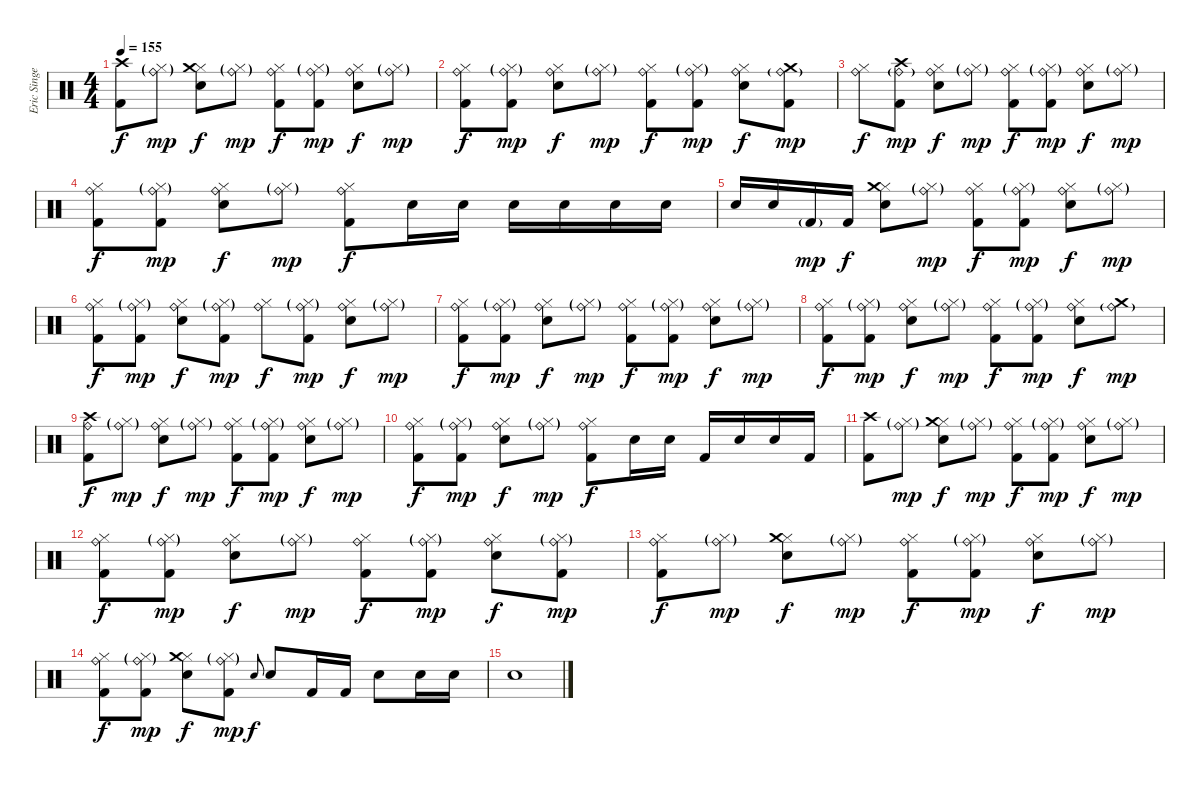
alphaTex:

\track ("Eric Singer" "Eric Singe") {instrument percussion}
\staff {score}
\articulation defaults
\ts (4 4)
\tempo 155
\clef neutral
\ks c
("Crash high (hit)" "Kick (hit) 2").8{dy f} ("Hi-Hat (closed)"{g} "Ride (bell)"{g}).8{dy mp} ("Hi-Hat (closed)" "Crash medium (hit)" "Snare (hit) 2").8{dy f} ("Hi-Hat (closed)"{g} "Ride (bell)"{g}).8{dy mp} ("Hi-Hat (closed)" "Ride (bell)" "Kick (hit) 2").8{dy f} ("Hi-Hat (closed)"{g} "Ride (bell)"{g} "Kick (hit) 2").8{dy mp} ("Hi-Hat (closed)" "Ride (bell)" "Snare (hit) 2").8{dy f} ("Hi-Hat (closed)"{g} "Ride (bell)"{g}).8{dy mp} |
("Hi-Hat (closed)" "Ride (bell)" "Kick (hit) 2").8{dy f} ("Hi-Hat (closed)"{g} "Ride (bell)"{g} "Kick (hit) 2").8{dy mp} ("Hi-Hat (closed)" "Ride (bell)" "Snare (hit) 2").8{dy f} ("Hi-Hat (closed)"{g} "Ride (bell)"{g}).8{dy mp} ("Hi-Hat (closed)" "Ride (bell)" "Kick (hit) 2").8{dy f} ("Hi-Hat (closed)"{g} "Ride (bell)"{g} "Kick (hit) 2").8{dy mp} ("Hi-Hat (closed)" "Ride (bell)" "Snare (hit) 2").8{dy f} ("Crash medium (hit)" "Ride (bell)"{g} "Kick (hit) 2").8{dy mp} |
("Hi-Hat (closed)" "Ride (bell)").8{dy f} ("Crash high (hit)" "Ride (bell)"{g} "Kick (hit) 2").8{dy mp} ("Hi-Hat (closed)" "Ride (bell)" "Snare (hit) 2").8{dy f} ("Hi-Hat (closed)"{g} "Ride (bell)"{g}).8{dy mp} ("Hi-Hat (closed)" "Ride (bell)" "Kick (hit) 2").8{dy f} ("Hi-Hat (closed)"{g} "Ride (bell)"{g} "Kick (hit) 2").8{dy mp} ("Hi-Hat (closed)" "Ride (bell)" "Snare (hit) 2").8{dy f} ("Hi-Hat (closed)"{g} "Ride (bell)"{g}).8{dy mp} |
("Hi-Hat (closed)" "Ride (bell)" "Kick (hit) 2").8{dy f} ("Hi-Hat (closed)"{g} "Ride (bell)"{g} "Kick (hit) 2").8{dy mp} ("Hi-Hat (closed)" "Ride (bell)" "Snare (hit) 2").8{dy f} ("Hi-Hat (closed)"{g} "Ride (bell)"{g}).8{dy mp} ("Hi-Hat (closed)" "Ride (bell)" "Kick (hit) 2").8{dy f} "Snare (hit) 2".16 "Snare (hit) 2".16 "Snare (hit) 2".16 "Snare (hit) 2".16 "Snare (hit) 2".16 "Snare (hit) 2".16 |
"Snare (hit) 2".16 "Snare (hit) 2".16 "Kick (hit) 2"{g}.16{dy mp} "Kick (hit) 2".16{dy f} ("Hi-Hat (closed)" "Crash medium (hit)" "Snare (hit) 2").8 ("Hi-Hat (closed)"{g} "Ride (bell)"{g}).8{dy mp} ("Hi-Hat (closed)" "Ride (bell)" "Kick (hit) 2").8{dy f} ("Hi-Hat (closed)"{g} "Ride (bell)"{g} "Kick (hit) 2").8{dy mp} ("Hi-Hat (closed)" "Ride (bell)" "Snare (hit) 2").8{dy f} ("Hi-Hat (closed)"{g} "Ride (bell)"{g}).8{dy mp} |
("Hi-Hat (closed)" "Ride (bell)" "Kick (hit) 2").8{dy f} ("Hi-Hat (closed)"{g} "Ride (bell)"{g} "Kick (hit) 2").8{dy mp} ("Hi-Hat (closed)" "Ride (bell)" "Snare (hit) 2").8{dy f} ("Hi-Hat (closed)"{g} "Ride (bell)"{g} "Kick (hit) 2").8{dy mp} ("Hi-Hat (closed)" "Ride (bell)").8{dy f} ("Hi-Hat (closed)"{g} "Ride (bell)"{g} "Kick (hit) 2").8{dy mp} ("Hi-Hat (closed)" "Ride (bell)" "Snare (hit) 2").8{dy f} ("Hi-Hat (closed)"{g} "Ride (bell)"{g}).8{dy mp} |
("Hi-Hat (closed)" "Ride (bell)" "Kick (hit) 2").8{dy f} ("Hi-Hat (closed)"{g} "Ride (bell)"{g} "Kick (hit) 2").8{dy mp} ("Hi-Hat (closed)" "Ride (bell)" "Snare (hit) 2").8{dy f} ("Hi-Hat (closed)"{g} "Ride (bell)"{g}).8{dy mp} ("Hi-Hat (closed)" "Ride (bell)" "Kick (hit) 2").8{dy f} ("Hi-Hat (closed)"{g} "Ride (bell)"{g} "Kick (hit) 2").8{dy mp} ("Hi-Hat (closed)" "Ride (bell)" "Snare (hit) 2").8{dy f} ("Hi-Hat (closed)"{g} "Ride (bell)"{g}).8{dy mp} |
("Hi-Hat (closed)" "Ride (bell)" "Kick (hit) 2").8{dy f} ("Hi-Hat (closed)"{g} "Ride (bell)"{g} "Kick (hit) 2").8{dy mp} ("Hi-Hat (closed)" "Ride (bell)" "Snare (hit) 2").8{dy f} ("Hi-Hat (closed)"{g} "Ride (bell)"{g}).8{dy mp} ("Hi-Hat (closed)" "Ride (bell)" "Kick (hit) 2").8{dy f} ("Hi-Hat (closed)"{g} "Ride (bell)"{g} "Kick (hit) 2").8{dy mp} ("Hi-Hat (closed)" "Ride (bell)" "Snare (hit) 2").8{dy f} ("Crash medium (hit)" "Ride (bell)"{g}).8{dy mp} |
("Crash high (hit)" "Ride (bell)" "Kick (hit) 2").8{dy f} ("Hi-Hat (closed)"{g} "Ride (bell)"{g}).8{dy mp} ("Hi-Hat (closed)" "Ride (bell)" "Snare (hit) 2").8{dy f} ("Hi-Hat (closed)"{g} "Ride (bell)"{g}).8{dy mp} ("Hi-Hat (closed)" "Ride (bell)" "Kick (hit) 2").8{dy f} ("Hi-Hat (closed)"{g} "Ride (bell)"{g} "Kick (hit) 2").8{dy mp} ("Hi-Hat (closed)" "Ride (bell)" "Snare (hit) 2").8{dy f} ("Hi-Hat (closed)"{g} "Ride (bell)"{g}).8{dy mp} |
("Hi-Hat (closed)" "Ride (bell)" "Kick (hit) 2").8{dy f} ("Hi-Hat (closed)"{g} "Ride (bell)"{g} "Kick (hit) 2").8{dy mp} ("Hi-Hat (closed)" "Ride (bell)" "Snare (hit) 2").8{dy f} ("Hi-Hat (closed)"{g} "Ride (bell)"{g}).8{dy mp} ("Hi-Hat (closed)" "Ride (bell)" "Kick (hit) 2").8{dy f} "Snare (hit) 2".16 "Snare (hit) 2".16 "Kick (hit) 2".16 "Snare (hit) 2".16 "Snare (hit) 2".16 "Kick (hit) 2".16 |
("Crash high (hit)" "Kick (hit) 2").8 ("Hi-Hat (closed)"{g} "Ride (bell)"{g}).8{dy mp} ("Hi-Hat (closed)" "Crash medium (hit)" "Snare (hit) 2").8{dy f} ("Hi-Hat (closed)"{g} "Ride (bell)"{g}).8{dy mp} ("Hi-Hat (closed)" "Ride (bell)" "Kick (hit) 2").8{dy f} ("Hi-Hat (closed)"{g} "Ride (bell)"{g} "Kick (hit) 2").8{dy mp} ("Hi-Hat (closed)" "Ride (bell)" "Snare (hit) 2").8{dy f} ("Hi-Hat (closed)"{g} "Ride (bell)"{g}).8{dy mp} |
("Hi-Hat (closed)" "Ride (bell)" "Kick (hit) 2").8{dy f} ("Hi-Hat (closed)"{g} "Ride (bell)"{g} "Kick (hit) 2").8{dy mp} ("Hi-Hat (closed)" "Ride (bell)" "Snare (hit) 2").8{dy f} ("Hi-Hat (closed)"{g} "Ride (bell)"{g}).8{dy mp} ("Hi-Hat (closed)" "Ride (bell)" "Kick (hit) 2").8{dy f} ("Hi-Hat (closed)"{g} "Ride (bell)"{g} "Kick (hit) 2").8{dy mp} ("Hi-Hat (closed)" "Ride (bell)" "Snare (hit) 2").8{dy f} ("Hi-Hat (closed)"{g} "Ride (bell)"{g} "Kick (hit) 2").8{dy mp} |
("Hi-Hat (closed)" "Ride (bell)" "Kick (hit) 2").8{dy f} ("Hi-Hat (closed)"{g} "Ride (bell)"{g}).8{dy mp} ("Hi-Hat (closed)" "Crash medium (hit)" "Snare (hit) 2").8{dy f} ("Hi-Hat (closed)"{g} "Ride (bell)"{g}).8{dy mp} ("Hi-Hat (closed)" "Ride (bell)" "Kick (hit) 2").8{dy f} ("Hi-Hat (closed)"{g} "Ride (bell)"{g} "Kick (hit) 2").8{dy mp} ("Hi-Hat (closed)" "Ride (bell)" "Snare (hit) 2").8{dy f} ("Hi-Hat (closed)"{g} "Ride (bell)"{g}).8{dy mp} |
("Hi-Hat (closed)" "Ride (bell)" "Kick (hit) 2").8{dy f} ("Hi-Hat (closed)"{g} "Ride (bell)"{g} "Kick (hit) 2").8{dy mp} ("Hi-Hat (closed)" "Crash medium (hit)" "Snare (hit) 2").8{dy f} ("Hi-Hat (closed)"{g} "Ride (bell)"{g} "Kick (hit) 2").8{dy mp} "Snare (hit) 2".8{gr onbeat dy f} "Snare (hit) 2".8 "Kick (hit) 2".16 "Kick (hit) 2".16 "Snare (hit) 2".8 "Snare (hit) 2".16 "Snare (hit) 2".16 |
"Snare (hit) 2".1
